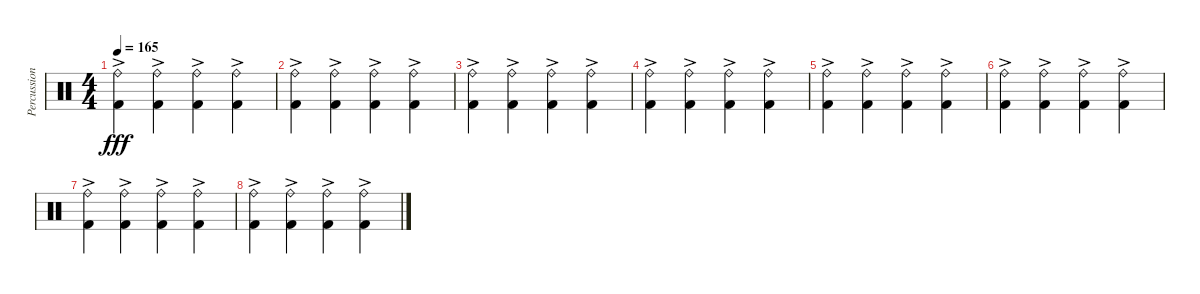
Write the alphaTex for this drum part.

\track ("Percussions" "Percussion") {instrument percussion}
\staff {score}
\articulation defaults
\ts (4 4)
\tempo 165
\clef neutral
\ks c
("Ride (bell)"{ac} "Kick (hit) 2").4{dy fff} ("Ride (bell)"{ac} "Kick (hit) 2").4 ("Ride (bell)"{ac} "Kick (hit) 2").4 ("Ride (bell)"{ac} "Kick (hit) 2").4 |
("Ride (bell)"{ac} "Kick (hit) 2").4 ("Ride (bell)"{ac} "Kick (hit) 2").4 ("Ride (bell)"{ac} "Kick (hit) 2").4 ("Ride (bell)"{ac} "Kick (hit) 2").4 |
("Ride (bell)"{ac} "Kick (hit) 2").4 ("Ride (bell)"{ac} "Kick (hit) 2").4 ("Ride (bell)"{ac} "Kick (hit) 2").4 ("Ride (bell)"{ac} "Kick (hit) 2").4 |
("Ride (bell)"{ac} "Kick (hit) 2").4 ("Ride (bell)"{ac} "Kick (hit) 2").4 ("Ride (bell)"{ac} "Kick (hit) 2").4 ("Ride (bell)"{ac} "Kick (hit) 2").4 |
("Ride (bell)"{ac} "Kick (hit) 2").4 ("Ride (bell)"{ac} "Kick (hit) 2").4 ("Ride (bell)"{ac} "Kick (hit) 2").4 ("Ride (bell)"{ac} "Kick (hit) 2").4 |
("Ride (bell)"{ac} "Kick (hit) 2").4 ("Ride (bell)"{ac} "Kick (hit) 2").4 ("Ride (bell)"{ac} "Kick (hit) 2").4 ("Ride (bell)"{ac} "Kick (hit) 2").4 |
("Ride (bell)"{ac} "Kick (hit) 2").4 ("Ride (bell)"{ac} "Kick (hit) 2").4 ("Ride (bell)"{ac} "Kick (hit) 2").4 ("Ride (bell)"{ac} "Kick (hit) 2").4 |
("Ride (bell)"{ac} "Kick (hit) 2").4 ("Ride (bell)"{ac} "Kick (hit) 2").4 ("Ride (bell)"{ac} "Kick (hit) 2").4 ("Ride (bell)"{ac} "Kick (hit) 2").4
